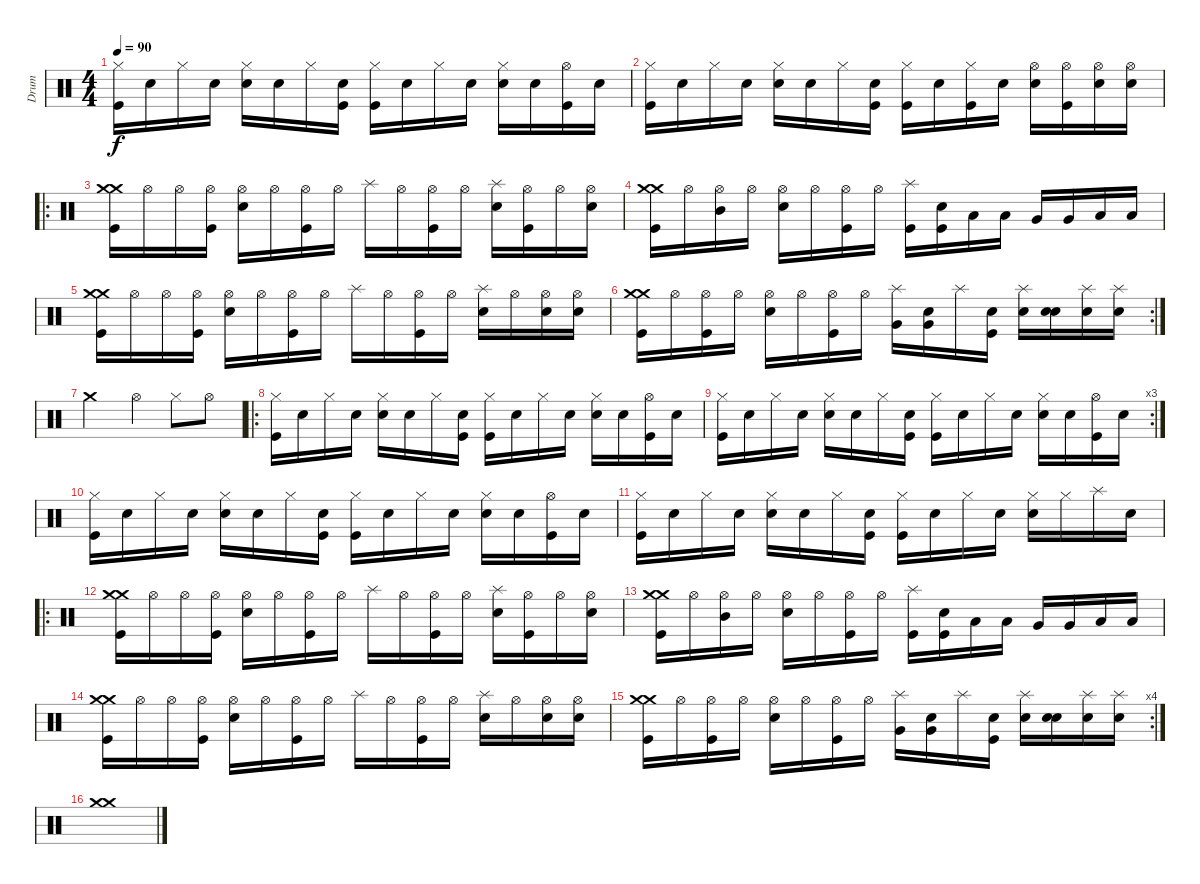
\track ("Drum" "Drum") {instrument percussion}
\staff {score}
\articulation defaults
\ts (4 4)
\tempo 90
\clef neutral
\ks c
("Hi-Hat (closed)" "Kick (hit)").16{dy f} "Snare (hit)".16 "Hi-Hat (closed)".16 "Snare (hit)".16 ("Hi-Hat (closed)" "Electric Snare (hit)").16 "Snare (hit)".16 "Hi-Hat (closed)".16 ("Snare (hit)" "Kick (hit)").16 ("Hi-Hat (closed)" "Kick (hit)").16 "Snare (hit)".16 "Hi-Hat (closed)".16 "Snare (hit)".16 ("Hi-Hat (closed)" "Electric Snare (hit)").16 "Snare (hit)".16 ("Hi-Hat (open)" "Kick (hit)").16 "Snare (hit)".16 |
("Hi-Hat (closed)" "Kick (hit)").16 "Snare (hit)".16 "Hi-Hat (closed)".16 "Snare (hit)".16 ("Hi-Hat (closed)" "Electric Snare (hit)").16 "Snare (hit)".16 "Hi-Hat (closed)".16 ("Snare (hit)" "Kick (hit)").16 ("Hi-Hat (closed)" "Kick (hit)").16 "Snare (hit)".16 ("Hi-Hat (closed)" "Kick (hit)").16 "Snare (hit)".16 ("Hi-Hat (open)" "Electric Snare (hit)").16 ("Hi-Hat (open)" "Kick (hit)").16 ("Hi-Hat (open)" "Electric Snare (hit)").16 ("Hi-Hat (open)" "Electric Snare (hit)").16 |
\ro
("Crash medium (hit)" "Crash medium (hit)" "Kick (hit)").16 "Hi-Hat (open)".16 "Hi-Hat (open)".16 ("Hi-Hat (open)" "Kick (hit)").16 ("Hi-Hat (open)" "Electric Snare (hit)").16 "Hi-Hat (open)".16 ("Hi-Hat (open)" "Kick (hit)").16 "Hi-Hat (open)".16 "Splash (hit)".16 "Hi-Hat (open)".16 ("Hi-Hat (open)" "Kick (hit)").16 "Hi-Hat (open)".16 ("Splash (hit)" "Electric Snare (hit)").16 ("Hi-Hat (open)" "Kick (hit)").16 "Hi-Hat (open)".16 ("Hi-Hat (open)" "Electric Snare (hit)").16 |
("Crash medium (hit)" "Crash medium (hit)" "Kick (hit)").16 "Hi-Hat (open)".16 ("Hi-Hat (open)" "Mid Tom (hit)").16 "Hi-Hat (open)".16 ("Hi-Hat (open)" "Electric Snare (hit)").16 "Hi-Hat (open)".16 ("Hi-Hat (open)" "Kick (hit)").16 "Hi-Hat (open)".16 ("Splash (hit)" "Kick (hit)").16 ("Snare (hit)" "Kick (hit)").16 "Low Tom (hit)".16 "Low Tom (hit)".16 "Very Low Tom (hit)".16 "Very Low Tom (hit)".16 "Low Floor Tom (hit)".16 "Low Floor Tom (hit)".16 |
("Crash medium (hit)" "Crash medium (hit)" "Kick (hit)").16 "Hi-Hat (open)".16 "Hi-Hat (open)".16 ("Hi-Hat (open)" "Kick (hit)").16 ("Hi-Hat (open)" "Electric Snare (hit)").16 "Hi-Hat (open)".16 ("Hi-Hat (open)" "Kick (hit)").16 "Hi-Hat (open)".16 "Splash (hit)".16 "Hi-Hat (open)".16 ("Hi-Hat (open)" "Kick (hit)").16 "Hi-Hat (open)".16 ("Splash (hit)" "Electric Snare (hit)").16 "Hi-Hat (open)".16 ("Hi-Hat (open)" "Electric Snare (hit)").16 ("Hi-Hat (open)" "Electric Snare (hit)").16 |
\rc 2
("Crash medium (hit)" "Crash medium (hit)" "Kick (hit)").16 "Hi-Hat (open)".16 ("Hi-Hat (open)" "Kick (hit)").16 "Hi-Hat (open)".16 ("Hi-Hat (open)" "Electric Snare (hit)").16 "Hi-Hat (open)".16 ("Hi-Hat (open)" "Kick (hit)").16 "Hi-Hat (open)".16 ("Splash (hit)" "Very Low Tom (hit)").16 ("Snare (hit)" "Very Low Tom (hit)").16 "Splash (hit)".16 ("Snare (hit)" "Kick (hit)").16 ("Splash (hit)" "Electric Snare (hit)").16 ("Snare (hit)" "Electric Snare (hit)").16 ("Splash (hit)" "Electric Snare (hit)").16 ("Splash (hit)" "Electric Snare (hit)").16 |
"Crash medium (hit)".2 "Hi-Hat (open)".4 "Hi-Hat (closed)".8 "Hi-Hat (open)".8 |
\ro
("Hi-Hat (closed)" "Kick (hit)").16 "Snare (hit)".16 "Hi-Hat (closed)".16 "Snare (hit)".16 ("Hi-Hat (closed)" "Electric Snare (hit)").16 "Snare (hit)".16 "Hi-Hat (closed)".16 ("Snare (hit)" "Kick (hit)").16 ("Hi-Hat (closed)" "Kick (hit)").16 "Snare (hit)".16 "Hi-Hat (closed)".16 "Snare (hit)".16 ("Hi-Hat (closed)" "Electric Snare (hit)").16 "Snare (hit)".16 ("Hi-Hat (open)" "Kick (hit)").16 "Snare (hit)".16 |
\rc 3
("Hi-Hat (closed)" "Kick (hit)").16 "Snare (hit)".16 "Hi-Hat (closed)".16 "Snare (hit)".16 ("Hi-Hat (closed)" "Electric Snare (hit)").16 "Snare (hit)".16 "Hi-Hat (closed)".16 ("Snare (hit)" "Kick (hit)").16 ("Hi-Hat (closed)" "Kick (hit)").16 "Snare (hit)".16 "Hi-Hat (closed)".16 "Snare (hit)".16 ("Hi-Hat (closed)" "Electric Snare (hit)").16 "Snare (hit)".16 ("Hi-Hat (open)" "Kick (hit)").16 "Snare (hit)".16 |
("Hi-Hat (closed)" "Kick (hit)").16 "Snare (hit)".16 "Hi-Hat (closed)".16 "Snare (hit)".16 ("Hi-Hat (closed)" "Electric Snare (hit)").16 "Snare (hit)".16 "Hi-Hat (closed)".16 ("Snare (hit)" "Kick (hit)").16 ("Hi-Hat (closed)" "Kick (hit)").16 "Snare (hit)".16 "Hi-Hat (closed)".16 "Snare (hit)".16 ("Hi-Hat (closed)" "Electric Snare (hit)").16 "Snare (hit)".16 ("Hi-Hat (open)" "Kick (hit)").16 "Snare (hit)".16 |
("Hi-Hat (closed)" "Kick (hit)").16 "Snare (hit)".16 "Hi-Hat (closed)".16 "Snare (hit)".16 ("Hi-Hat (closed)" "Electric Snare (hit)").16 "Snare (hit)".16 "Hi-Hat (closed)".16 ("Snare (hit)" "Kick (hit)").16 ("Hi-Hat (closed)" "Kick (hit)").16 "Snare (hit)".16 "Hi-Hat (closed)".16 "Snare (hit)".16 ("Hi-Hat (closed)" "Electric Snare (hit)").16 "Hi-Hat (closed)".16 "Splash (hit)".16 "Snare (hit)".16 |
\ro
("Crash medium (hit)" "Crash medium (hit)" "Kick (hit)").16 "Hi-Hat (open)".16 "Hi-Hat (open)".16 ("Hi-Hat (open)" "Kick (hit)").16 ("Hi-Hat (open)" "Electric Snare (hit)").16 "Hi-Hat (open)".16 ("Hi-Hat (open)" "Kick (hit)").16 "Hi-Hat (open)".16 "Splash (hit)".16 "Hi-Hat (open)".16 ("Hi-Hat (open)" "Kick (hit)").16 "Hi-Hat (open)".16 ("Splash (hit)" "Electric Snare (hit)").16 ("Hi-Hat (open)" "Kick (hit)").16 "Hi-Hat (open)".16 ("Hi-Hat (open)" "Electric Snare (hit)").16 |
("Crash medium (hit)" "Crash medium (hit)" "Kick (hit)").16 "Hi-Hat (open)".16 ("Hi-Hat (open)" "Mid Tom (hit)").16 "Hi-Hat (open)".16 ("Hi-Hat (open)" "Electric Snare (hit)").16 "Hi-Hat (open)".16 ("Hi-Hat (open)" "Kick (hit)").16 "Hi-Hat (open)".16 ("Splash (hit)" "Kick (hit)").16 ("Snare (hit)" "Kick (hit)").16 "Low Tom (hit)".16 "Low Tom (hit)".16 "Very Low Tom (hit)".16 "Very Low Tom (hit)".16 "Low Floor Tom (hit)".16 "Low Floor Tom (hit)".16 |
("Crash medium (hit)" "Crash medium (hit)" "Kick (hit)").16 "Hi-Hat (open)".16 "Hi-Hat (open)".16 ("Hi-Hat (open)" "Kick (hit)").16 ("Hi-Hat (open)" "Electric Snare (hit)").16 "Hi-Hat (open)".16 ("Hi-Hat (open)" "Kick (hit)").16 "Hi-Hat (open)".16 "Splash (hit)".16 "Hi-Hat (open)".16 ("Hi-Hat (open)" "Kick (hit)").16 "Hi-Hat (open)".16 ("Splash (hit)" "Electric Snare (hit)").16 "Hi-Hat (open)".16 ("Hi-Hat (open)" "Electric Snare (hit)").16 ("Hi-Hat (open)" "Electric Snare (hit)").16 |
\rc 4
("Crash medium (hit)" "Crash medium (hit)" "Kick (hit)").16 "Hi-Hat (open)".16 ("Hi-Hat (open)" "Kick (hit)").16 "Hi-Hat (open)".16 ("Hi-Hat (open)" "Electric Snare (hit)").16 "Hi-Hat (open)".16 ("Hi-Hat (open)" "Kick (hit)").16 "Hi-Hat (open)".16 ("Splash (hit)" "Very Low Tom (hit)").16 ("Snare (hit)" "Very Low Tom (hit)").16 "Splash (hit)".16 ("Snare (hit)" "Kick (hit)").16 ("Splash (hit)" "Electric Snare (hit)").16 ("Snare (hit)" "Electric Snare (hit)").16 ("Splash (hit)" "Electric Snare (hit)").16 ("Splash (hit)" "Electric Snare (hit)").16 |
("Crash medium (hit)" "Crash medium (hit)").1
